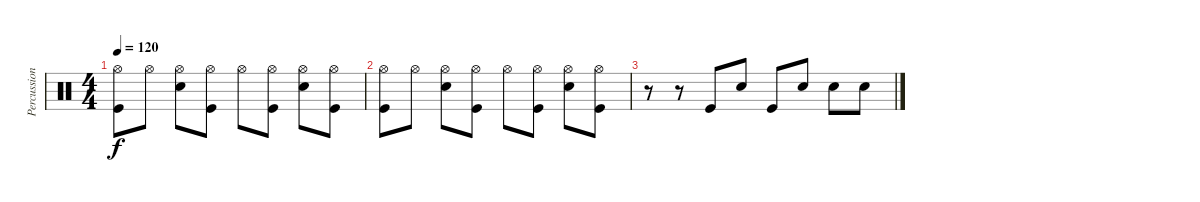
\track ("Percussion" "Percussion") {instrument percussion}
\staff {score}
\articulation defaults
\ts (4 4)
\tempo 120
\clef neutral
\ks c
("Hi-Hat (open)" "Kick (hit)").8{dy f} "Hi-Hat (open)".8 ("Hi-Hat (open)" "Snare (hit) 2").8 ("Hi-Hat (open)" "Kick (hit)").8 "Hi-Hat (open)".8 ("Hi-Hat (open)" "Kick (hit)").8 ("Hi-Hat (open)" "Snare (hit) 2").8 ("Hi-Hat (open)" "Kick (hit)").8 |
("Hi-Hat (open)" "Kick (hit)").8 "Hi-Hat (open)".8 ("Hi-Hat (open)" "Snare (hit) 2").8 ("Hi-Hat (open)" "Kick (hit)").8 "Hi-Hat (open)".8 ("Hi-Hat (open)" "Kick (hit)").8 ("Hi-Hat (open)" "Snare (hit) 2").8 ("Hi-Hat (open)" "Kick (hit)").8 |
r.8 r.8 "Kick (hit)".8 "Snare (hit) 2".8 "Kick (hit)".8 "Snare (hit) 2".8 "Snare (hit) 2".8 "Snare (hit) 2".8
